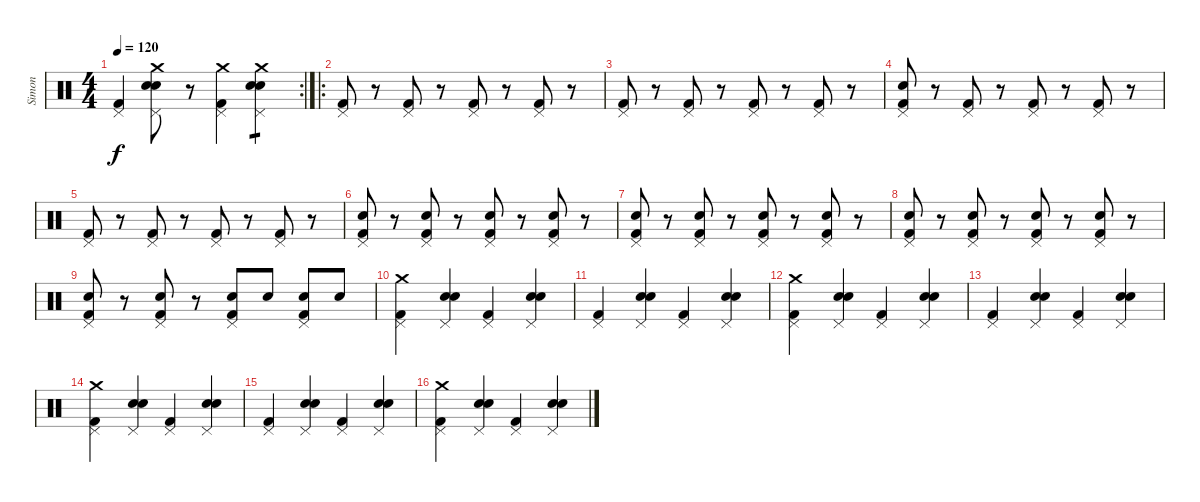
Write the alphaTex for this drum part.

\track ("Simon" "Simon") {instrument percussion}
\staff {score}
\articulation defaults
\rc 2
\ts (4 4)
\tempo 120
\clef neutral
\ks c
("Kick (hit) 2" "Pedal Hi-Hat (hit)").4{dy f} ("Snare (hit) 2" "Electric Snare (hit)" "Crash medium (hit)" "Pedal Hi-Hat (hit)").8 r.8 ("Kick (hit) 2" "Crash medium (hit)" "Pedal Hi-Hat (hit)").4 ("Snare (hit) 2" "Electric Snare (hit)" "Crash medium (hit)" "Pedal Hi-Hat (hit)").4{tp 1} |
\ro
("Kick (hit) 2" "Pedal Hi-Hat (hit)").8 r.8 ("Kick (hit) 2" "Pedal Hi-Hat (hit)").8 r.8 ("Kick (hit) 2" "Pedal Hi-Hat (hit)").8 r.8 ("Kick (hit) 2" "Pedal Hi-Hat (hit)").8 r.8 |
("Kick (hit) 2" "Pedal Hi-Hat (hit)").8 r.8 ("Kick (hit) 2" "Pedal Hi-Hat (hit)").8 r.8 ("Kick (hit) 2" "Pedal Hi-Hat (hit)").8 r.8 ("Kick (hit) 2" "Pedal Hi-Hat (hit)").8 r.8 |
("Kick (hit) 2" "Electric Snare (hit)" "Pedal Hi-Hat (hit)").8 r.8 ("Kick (hit) 2" "Pedal Hi-Hat (hit)").8 r.8 ("Kick (hit) 2" "Pedal Hi-Hat (hit)").8 r.8 ("Kick (hit) 2" "Pedal Hi-Hat (hit)").8 r.8 |
("Kick (hit) 2" "Pedal Hi-Hat (hit)").8 r.8 ("Kick (hit) 2" "Pedal Hi-Hat (hit)").8 r.8 ("Kick (hit) 2" "Pedal Hi-Hat (hit)").8 r.8 ("Kick (hit) 2" "Pedal Hi-Hat (hit)").8 r.8 |
("Kick (hit) 2" "Electric Snare (hit)" "Pedal Hi-Hat (hit)").8 r.8 ("Kick (hit) 2" "Electric Snare (hit)" "Pedal Hi-Hat (hit)").8 r.8 ("Kick (hit) 2" "Electric Snare (hit)" "Pedal Hi-Hat (hit)").8 r.8 ("Kick (hit) 2" "Electric Snare (hit)" "Pedal Hi-Hat (hit)").8 r.8 |
("Kick (hit) 2" "Electric Snare (hit)" "Pedal Hi-Hat (hit)").8 r.8 ("Kick (hit) 2" "Electric Snare (hit)" "Pedal Hi-Hat (hit)").8 r.8 ("Kick (hit) 2" "Electric Snare (hit)" "Pedal Hi-Hat (hit)").8 r.8 ("Kick (hit) 2" "Electric Snare (hit)" "Pedal Hi-Hat (hit)").8 r.8 |
("Kick (hit) 2" "Electric Snare (hit)" "Pedal Hi-Hat (hit)").8 r.8 ("Kick (hit) 2" "Electric Snare (hit)" "Pedal Hi-Hat (hit)").8 r.8 ("Kick (hit) 2" "Electric Snare (hit)" "Pedal Hi-Hat (hit)").8 r.8 ("Kick (hit) 2" "Electric Snare (hit)" "Pedal Hi-Hat (hit)").8 r.8 |
("Kick (hit) 2" "Electric Snare (hit)" "Pedal Hi-Hat (hit)").8 r.8 ("Kick (hit) 2" "Electric Snare (hit)" "Pedal Hi-Hat (hit)").8 r.8 ("Kick (hit) 2" "Electric Snare (hit)" "Pedal Hi-Hat (hit)").8 "Electric Snare (hit)".8 ("Kick (hit) 2" "Electric Snare (hit)" "Pedal Hi-Hat (hit)").8 "Electric Snare (hit)".8 |
("Kick (hit) 2" "Crash medium (hit)" "Pedal Hi-Hat (hit)").4 ("Snare (hit) 2" "Electric Snare (hit)" "Pedal Hi-Hat (hit)").4 ("Kick (hit) 2" "Pedal Hi-Hat (hit)").4 ("Snare (hit) 2" "Electric Snare (hit)" "Pedal Hi-Hat (hit)").4 |
("Kick (hit) 2" "Pedal Hi-Hat (hit)").4 ("Snare (hit) 2" "Electric Snare (hit)" "Pedal Hi-Hat (hit)").4 ("Kick (hit) 2" "Pedal Hi-Hat (hit)").4 ("Snare (hit) 2" "Electric Snare (hit)" "Pedal Hi-Hat (hit)").4 |
("Kick (hit) 2" "Crash medium (hit)" "Pedal Hi-Hat (hit)").4 ("Snare (hit) 2" "Electric Snare (hit)" "Pedal Hi-Hat (hit)").4 ("Kick (hit) 2" "Pedal Hi-Hat (hit)").4 ("Snare (hit) 2" "Electric Snare (hit)" "Pedal Hi-Hat (hit)").4 |
("Kick (hit) 2" "Pedal Hi-Hat (hit)").4 ("Snare (hit) 2" "Electric Snare (hit)" "Pedal Hi-Hat (hit)").4 ("Kick (hit) 2" "Pedal Hi-Hat (hit)").4 ("Snare (hit) 2" "Electric Snare (hit)" "Pedal Hi-Hat (hit)").4 |
("Kick (hit) 2" "Crash medium (hit)" "Pedal Hi-Hat (hit)").4 ("Snare (hit) 2" "Electric Snare (hit)" "Pedal Hi-Hat (hit)").4 ("Kick (hit) 2" "Pedal Hi-Hat (hit)").4 ("Snare (hit) 2" "Electric Snare (hit)" "Pedal Hi-Hat (hit)").4 |
("Kick (hit) 2" "Pedal Hi-Hat (hit)").4 ("Snare (hit) 2" "Electric Snare (hit)" "Pedal Hi-Hat (hit)").4 ("Kick (hit) 2" "Pedal Hi-Hat (hit)").4 ("Snare (hit) 2" "Electric Snare (hit)" "Pedal Hi-Hat (hit)").4 |
("Kick (hit) 2" "Crash medium (hit)" "Pedal Hi-Hat (hit)").4 ("Snare (hit) 2" "Electric Snare (hit)" "Pedal Hi-Hat (hit)").4 ("Kick (hit) 2" "Pedal Hi-Hat (hit)").4 ("Snare (hit) 2" "Electric Snare (hit)" "Pedal Hi-Hat (hit)").4
